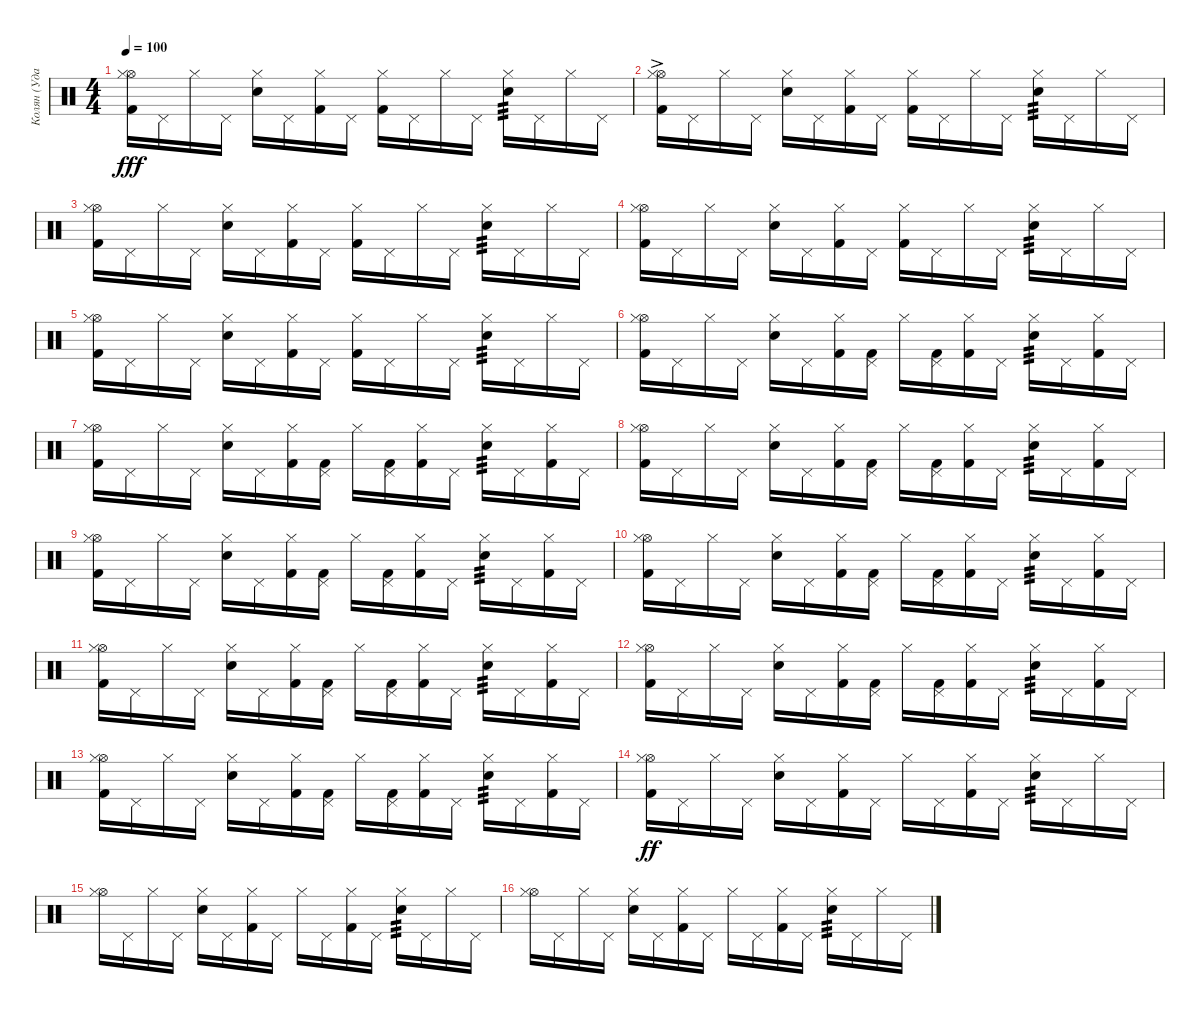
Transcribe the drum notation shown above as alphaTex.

\track ("Колян (Ударные)" "Колян (Уда") {instrument percussion}
\staff {score}
\articulation defaults
\ts (4 4)
\tempo 100
\clef neutral
\ks c
("Kick (hit) 2" "Hi-Hat (open)" "Hi-Hat (closed)").16{dy fff} "Pedal Hi-Hat (hit)".16 "Hi-Hat (closed)".16 "Pedal Hi-Hat (hit)".16 ("Snare (hit) 2" "Hi-Hat (closed)").16 "Pedal Hi-Hat (hit)".16 ("Kick (hit) 2" "Hi-Hat (closed)").16 "Pedal Hi-Hat (hit)".16 ("Kick (hit) 2" "Hi-Hat (closed)").16 "Pedal Hi-Hat (hit)".16 "Hi-Hat (closed)".16 "Pedal Hi-Hat (hit)".16 ("Snare (hit) 2" "Hi-Hat (closed)").16{tp 3} "Pedal Hi-Hat (hit)".16 "Hi-Hat (closed)".16 "Pedal Hi-Hat (hit)".16 |
("Kick (hit) 2" "Hi-Hat (open)"{ac} "Hi-Hat (closed)").16{volume 13} "Pedal Hi-Hat (hit)".16 "Hi-Hat (closed)".16 "Pedal Hi-Hat (hit)".16 ("Snare (hit) 2" "Hi-Hat (closed)").16 "Pedal Hi-Hat (hit)".16 ("Kick (hit) 2" "Hi-Hat (closed)").16 "Pedal Hi-Hat (hit)".16 ("Kick (hit) 2" "Hi-Hat (closed)").16 "Pedal Hi-Hat (hit)".16 "Hi-Hat (closed)".16 "Pedal Hi-Hat (hit)".16 ("Snare (hit) 2" "Hi-Hat (closed)").16{tp 3} "Pedal Hi-Hat (hit)".16 "Hi-Hat (closed)".16 "Pedal Hi-Hat (hit)".16 |
("Kick (hit) 2" "Hi-Hat (open)" "Hi-Hat (closed)").16 "Pedal Hi-Hat (hit)".16 "Hi-Hat (closed)".16 "Pedal Hi-Hat (hit)".16 ("Snare (hit) 2" "Hi-Hat (closed)").16 "Pedal Hi-Hat (hit)".16 ("Kick (hit) 2" "Hi-Hat (closed)").16 "Pedal Hi-Hat (hit)".16 ("Kick (hit) 2" "Hi-Hat (closed)").16 "Pedal Hi-Hat (hit)".16 "Hi-Hat (closed)".16 "Pedal Hi-Hat (hit)".16 ("Snare (hit) 2" "Hi-Hat (closed)").16{tp 3} "Pedal Hi-Hat (hit)".16 "Hi-Hat (closed)".16 "Pedal Hi-Hat (hit)".16 |
("Kick (hit) 2" "Hi-Hat (open)" "Hi-Hat (closed)").16 "Pedal Hi-Hat (hit)".16 "Hi-Hat (closed)".16 "Pedal Hi-Hat (hit)".16 ("Snare (hit) 2" "Hi-Hat (closed)").16 "Pedal Hi-Hat (hit)".16 ("Kick (hit) 2" "Hi-Hat (closed)").16 "Pedal Hi-Hat (hit)".16 ("Kick (hit) 2" "Hi-Hat (closed)").16 "Pedal Hi-Hat (hit)".16 "Hi-Hat (closed)".16 "Pedal Hi-Hat (hit)".16 ("Snare (hit) 2" "Hi-Hat (closed)").16{tp 3} "Pedal Hi-Hat (hit)".16 "Hi-Hat (closed)".16 "Pedal Hi-Hat (hit)".16 |
("Kick (hit) 2" "Hi-Hat (open)" "Hi-Hat (closed)").16 "Pedal Hi-Hat (hit)".16 "Hi-Hat (closed)".16 "Pedal Hi-Hat (hit)".16 ("Snare (hit) 2" "Hi-Hat (closed)").16 "Pedal Hi-Hat (hit)".16 ("Kick (hit) 2" "Hi-Hat (closed)").16 "Pedal Hi-Hat (hit)".16 ("Kick (hit) 2" "Hi-Hat (closed)").16 "Pedal Hi-Hat (hit)".16 "Hi-Hat (closed)".16 "Pedal Hi-Hat (hit)".16 ("Snare (hit) 2" "Hi-Hat (closed)").16{tp 3} "Pedal Hi-Hat (hit)".16 "Hi-Hat (closed)".16 "Pedal Hi-Hat (hit)".16 |
("Kick (hit) 2" "Hi-Hat (open)" "Hi-Hat (closed)").16 "Pedal Hi-Hat (hit)".16 "Hi-Hat (closed)".16 "Pedal Hi-Hat (hit)".16 ("Snare (hit) 2" "Hi-Hat (closed)").16 "Pedal Hi-Hat (hit)".16 ("Kick (hit) 2" "Hi-Hat (closed)").16 ("Kick (hit) 2" "Pedal Hi-Hat (hit)").16 "Hi-Hat (closed)".16 ("Kick (hit) 2" "Pedal Hi-Hat (hit)").16 ("Kick (hit) 2" "Hi-Hat (closed)").16 "Pedal Hi-Hat (hit)".16 ("Snare (hit) 2" "Hi-Hat (closed)").16{tp 3} "Pedal Hi-Hat (hit)".16 ("Kick (hit) 2" "Hi-Hat (closed)").16 "Pedal Hi-Hat (hit)".16 |
("Kick (hit) 2" "Hi-Hat (open)" "Hi-Hat (closed)").16 "Pedal Hi-Hat (hit)".16 "Hi-Hat (closed)".16 "Pedal Hi-Hat (hit)".16 ("Snare (hit) 2" "Hi-Hat (closed)").16 "Pedal Hi-Hat (hit)".16 ("Kick (hit) 2" "Hi-Hat (closed)").16 ("Kick (hit) 2" "Pedal Hi-Hat (hit)").16 "Hi-Hat (closed)".16 ("Kick (hit) 2" "Pedal Hi-Hat (hit)").16 ("Kick (hit) 2" "Hi-Hat (closed)").16 "Pedal Hi-Hat (hit)".16 ("Snare (hit) 2" "Hi-Hat (closed)").16{tp 3} "Pedal Hi-Hat (hit)".16 ("Kick (hit) 2" "Hi-Hat (closed)").16 "Pedal Hi-Hat (hit)".16 |
("Kick (hit) 2" "Hi-Hat (open)" "Hi-Hat (closed)").16 "Pedal Hi-Hat (hit)".16 "Hi-Hat (closed)".16 "Pedal Hi-Hat (hit)".16 ("Snare (hit) 2" "Hi-Hat (closed)").16 "Pedal Hi-Hat (hit)".16 ("Kick (hit) 2" "Hi-Hat (closed)").16 ("Kick (hit) 2" "Pedal Hi-Hat (hit)").16 "Hi-Hat (closed)".16 ("Kick (hit) 2" "Pedal Hi-Hat (hit)").16 ("Kick (hit) 2" "Hi-Hat (closed)").16 "Pedal Hi-Hat (hit)".16 ("Snare (hit) 2" "Hi-Hat (closed)").16{tp 3} "Pedal Hi-Hat (hit)".16 ("Kick (hit) 2" "Hi-Hat (closed)").16 "Pedal Hi-Hat (hit)".16 |
("Kick (hit) 2" "Hi-Hat (open)" "Hi-Hat (closed)").16 "Pedal Hi-Hat (hit)".16 "Hi-Hat (closed)".16 "Pedal Hi-Hat (hit)".16 ("Snare (hit) 2" "Hi-Hat (closed)").16 "Pedal Hi-Hat (hit)".16 ("Kick (hit) 2" "Hi-Hat (closed)").16 ("Kick (hit) 2" "Pedal Hi-Hat (hit)").16 "Hi-Hat (closed)".16 ("Kick (hit) 2" "Pedal Hi-Hat (hit)").16 ("Kick (hit) 2" "Hi-Hat (closed)").16 "Pedal Hi-Hat (hit)".16 ("Snare (hit) 2" "Hi-Hat (closed)").16{tp 3} "Pedal Hi-Hat (hit)".16 ("Kick (hit) 2" "Hi-Hat (closed)").16 "Pedal Hi-Hat (hit)".16 |
("Kick (hit) 2" "Hi-Hat (open)" "Hi-Hat (closed)").16 "Pedal Hi-Hat (hit)".16 "Hi-Hat (closed)".16 "Pedal Hi-Hat (hit)".16 ("Snare (hit) 2" "Hi-Hat (closed)").16 "Pedal Hi-Hat (hit)".16 ("Kick (hit) 2" "Hi-Hat (closed)").16 ("Kick (hit) 2" "Pedal Hi-Hat (hit)").16 "Hi-Hat (closed)".16 ("Kick (hit) 2" "Pedal Hi-Hat (hit)").16 ("Kick (hit) 2" "Hi-Hat (closed)").16 "Pedal Hi-Hat (hit)".16 ("Snare (hit) 2" "Hi-Hat (closed)").16{tp 3} "Pedal Hi-Hat (hit)".16 ("Kick (hit) 2" "Hi-Hat (closed)").16 "Pedal Hi-Hat (hit)".16 |
("Kick (hit) 2" "Hi-Hat (open)" "Hi-Hat (closed)").16 "Pedal Hi-Hat (hit)".16 "Hi-Hat (closed)".16 "Pedal Hi-Hat (hit)".16 ("Snare (hit) 2" "Hi-Hat (closed)").16 "Pedal Hi-Hat (hit)".16 ("Kick (hit) 2" "Hi-Hat (closed)").16 ("Kick (hit) 2" "Pedal Hi-Hat (hit)").16 "Hi-Hat (closed)".16 ("Kick (hit) 2" "Pedal Hi-Hat (hit)").16 ("Kick (hit) 2" "Hi-Hat (closed)").16 "Pedal Hi-Hat (hit)".16 ("Snare (hit) 2" "Hi-Hat (closed)").16{tp 3} "Pedal Hi-Hat (hit)".16 ("Kick (hit) 2" "Hi-Hat (closed)").16 "Pedal Hi-Hat (hit)".16 |
("Kick (hit) 2" "Hi-Hat (open)" "Hi-Hat (closed)").16 "Pedal Hi-Hat (hit)".16 "Hi-Hat (closed)".16 "Pedal Hi-Hat (hit)".16 ("Snare (hit) 2" "Hi-Hat (closed)").16 "Pedal Hi-Hat (hit)".16 ("Kick (hit) 2" "Hi-Hat (closed)").16 ("Kick (hit) 2" "Pedal Hi-Hat (hit)").16 "Hi-Hat (closed)".16 ("Kick (hit) 2" "Pedal Hi-Hat (hit)").16 ("Kick (hit) 2" "Hi-Hat (closed)").16 "Pedal Hi-Hat (hit)".16 ("Snare (hit) 2" "Hi-Hat (closed)").16{tp 3} "Pedal Hi-Hat (hit)".16 ("Kick (hit) 2" "Hi-Hat (closed)").16 "Pedal Hi-Hat (hit)".16 |
("Kick (hit) 2" "Hi-Hat (open)" "Hi-Hat (closed)").16 "Pedal Hi-Hat (hit)".16 "Hi-Hat (closed)".16 "Pedal Hi-Hat (hit)".16 ("Snare (hit) 2" "Hi-Hat (closed)").16 "Pedal Hi-Hat (hit)".16 ("Kick (hit) 2" "Hi-Hat (closed)").16 ("Kick (hit) 2" "Pedal Hi-Hat (hit)").16 "Hi-Hat (closed)".16 ("Kick (hit) 2" "Pedal Hi-Hat (hit)").16 ("Kick (hit) 2" "Hi-Hat (closed)").16 "Pedal Hi-Hat (hit)".16 ("Snare (hit) 2" "Hi-Hat (closed)").16{tp 3} "Pedal Hi-Hat (hit)".16 ("Kick (hit) 2" "Hi-Hat (closed)").16 "Pedal Hi-Hat (hit)".16 |
("Kick (hit) 2" "Hi-Hat (open)" "Hi-Hat (closed)").16{dy ff} "Pedal Hi-Hat (hit)".16 "Hi-Hat (closed)".16 "Pedal Hi-Hat (hit)".16 ("Snare (hit) 2" "Hi-Hat (closed)").16 "Pedal Hi-Hat (hit)".16 ("Kick (hit) 2" "Hi-Hat (closed)").16 "Pedal Hi-Hat (hit)".16 "Hi-Hat (closed)".16 "Pedal Hi-Hat (hit)".16 ("Kick (hit) 2" "Hi-Hat (closed)").16 "Pedal Hi-Hat (hit)".16 ("Snare (hit) 2" "Hi-Hat (closed)").16{tp 3} "Pedal Hi-Hat (hit)".16 "Hi-Hat (closed)".16 "Pedal Hi-Hat (hit)".16 |
("Hi-Hat (open)" "Hi-Hat (closed)").16 "Pedal Hi-Hat (hit)".16 "Hi-Hat (closed)".16 "Pedal Hi-Hat (hit)".16 ("Snare (hit) 2" "Hi-Hat (closed)").16 "Pedal Hi-Hat (hit)".16 ("Kick (hit) 2" "Hi-Hat (closed)").16 "Pedal Hi-Hat (hit)".16 "Hi-Hat (closed)".16 "Pedal Hi-Hat (hit)".16 ("Kick (hit) 2" "Hi-Hat (closed)").16 "Pedal Hi-Hat (hit)".16 ("Snare (hit) 2" "Hi-Hat (closed)").16{tp 3} "Pedal Hi-Hat (hit)".16 "Hi-Hat (closed)".16 "Pedal Hi-Hat (hit)".16 |
("Hi-Hat (open)" "Hi-Hat (closed)").16 "Pedal Hi-Hat (hit)".16 "Hi-Hat (closed)".16 "Pedal Hi-Hat (hit)".16 ("Snare (hit) 2" "Hi-Hat (closed)").16 "Pedal Hi-Hat (hit)".16 ("Kick (hit) 2" "Hi-Hat (closed)").16 "Pedal Hi-Hat (hit)".16 "Hi-Hat (closed)".16 "Pedal Hi-Hat (hit)".16 ("Kick (hit) 2" "Hi-Hat (closed)").16 "Pedal Hi-Hat (hit)".16 ("Snare (hit) 2" "Hi-Hat (closed)").16{tp 3} "Pedal Hi-Hat (hit)".16 "Hi-Hat (closed)".16 "Pedal Hi-Hat (hit)".16
